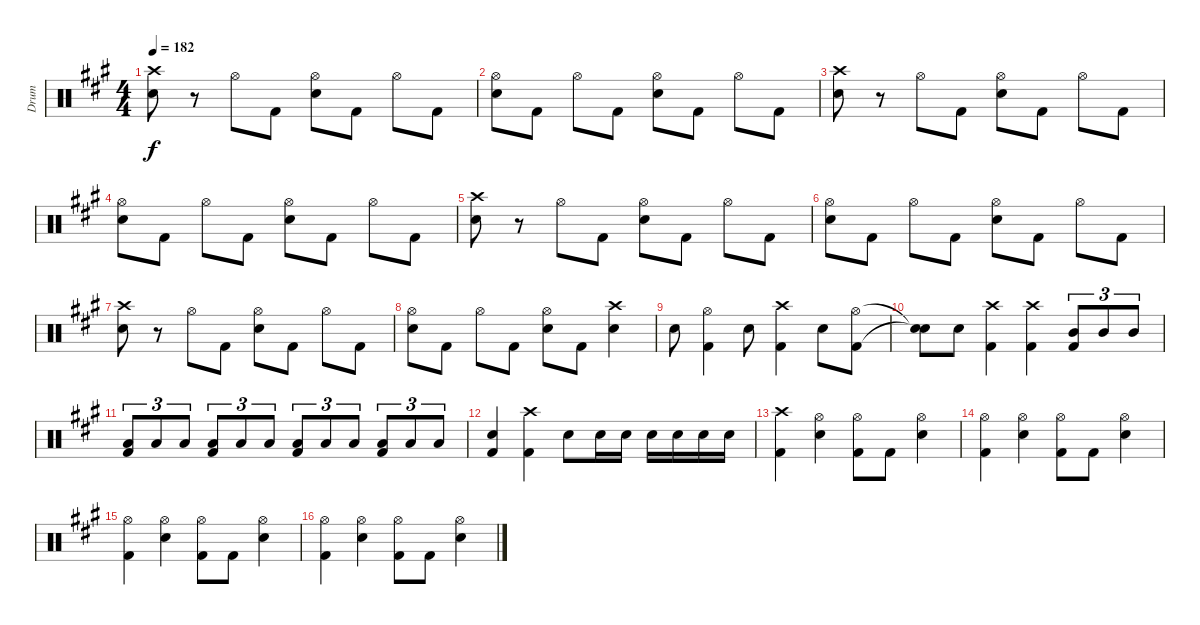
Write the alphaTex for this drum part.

\track ("Drum" "Drum") {instrument percussion}
\staff {score}
\articulation defaults
\ts (4 4)
\tempo 182
\clef neutral
\ks a
("Crash high (hit)" "Snare (hit) 2").8{dy f} r.8 "Hi-Hat (open)".8 "Kick (hit) 2".8 ("Hi-Hat (open)" "Snare (hit) 2").8 "Kick (hit) 2".8 "Hi-Hat (open)".8 "Kick (hit) 2".8 |
("Hi-Hat (open)" "Snare (hit) 2").8 "Kick (hit) 2".8 "Hi-Hat (open)".8 "Kick (hit) 2".8 ("Hi-Hat (open)" "Snare (hit) 2").8 "Kick (hit) 2".8 "Hi-Hat (open)".8 "Kick (hit) 2".8 |
("Crash high (hit)" "Snare (hit) 2").8 r.8 "Hi-Hat (open)".8 "Kick (hit) 2".8 ("Hi-Hat (open)" "Snare (hit) 2").8 "Kick (hit) 2".8 "Hi-Hat (open)".8 "Kick (hit) 2".8 |
("Hi-Hat (open)" "Snare (hit) 2").8 "Kick (hit) 2".8 "Hi-Hat (open)".8 "Kick (hit) 2".8 ("Hi-Hat (open)" "Snare (hit) 2").8 "Kick (hit) 2".8 "Hi-Hat (open)".8 "Kick (hit) 2".8 |
("Crash high (hit)" "Snare (hit) 2").8 r.8 "Hi-Hat (open)".8 "Kick (hit) 2".8 ("Hi-Hat (open)" "Snare (hit) 2").8 "Kick (hit) 2".8 "Hi-Hat (open)".8 "Kick (hit) 2".8 |
("Hi-Hat (open)" "Snare (hit) 2").8 "Kick (hit) 2".8 "Hi-Hat (open)".8 "Kick (hit) 2".8 ("Hi-Hat (open)" "Snare (hit) 2").8 "Kick (hit) 2".8 "Hi-Hat (open)".8 "Kick (hit) 2".8 |
("Crash high (hit)" "Snare (hit) 2").8 r.8 "Hi-Hat (open)".8 "Kick (hit) 2".8 ("Hi-Hat (open)" "Snare (hit) 2").8 "Kick (hit) 2".8 "Hi-Hat (open)".8 "Kick (hit) 2".8 |
("Hi-Hat (open)" "Snare (hit) 2").8 "Kick (hit) 2".8 "Hi-Hat (open)".8 "Kick (hit) 2".8 ("Hi-Hat (open)" "Snare (hit) 2").8 "Kick (hit) 2".8 ("Crash high (hit)" "Snare (hit) 2").4 |
"Snare (hit) 2".8 ("Hi-Hat (open)" "Kick (hit) 2").4 "Snare (hit) 2".8 ("Crash high (hit)" "Kick (hit) 2").4 "Snare (hit) 2".8 ("Hi-Hat (open)" "Kick (hit) 2").8 |
("Snare (hit)"{t} "Snare (hit)"{t}).8 "Snare (hit) 2".8 ("Crash high (hit)" "Kick (hit) 2").4 ("Crash high (hit)" "Kick (hit) 2").4 ("Mid Tom (hit)" "Kick (hit) 2").8{tu (3 2)} "Mid Tom (hit)".8{tu (3 2)} "Mid Tom (hit)".8{tu (3 2)} |
("Low Tom (hit)" "Kick (hit) 2").8{tu (3 2)} "Low Tom (hit)".8{tu (3 2)} "Low Tom (hit)".8{tu (3 2)} ("Low Tom (hit)" "Kick (hit) 2").8{tu (3 2)} "Low Tom (hit)".8{tu (3 2)} "Low Tom (hit)".8{tu (3 2)} ("Low Tom (hit)" "Kick (hit) 2").8{tu (3 2)} "Low Tom (hit)".8{tu (3 2)} "Low Tom (hit)".8{tu (3 2)} ("Low Tom (hit)" "Kick (hit) 2").8{tu (3 2)} "Low Tom (hit)".8{tu (3 2)} "Low Tom (hit)".8{tu (3 2)} |
("Snare (hit) 2" "Kick (hit) 2").4 ("Crash high (hit)" "Kick (hit) 2").4 "Snare (hit) 2".8 "Snare (hit) 2".16 "Snare (hit) 2".16 "Snare (hit) 2".16 "Snare (hit) 2".16 "Snare (hit) 2".16 "Snare (hit) 2".16 |
("Crash high (hit)" "Kick (hit) 2").4 ("Hi-Hat (open)" "Snare (hit) 2").4 ("Hi-Hat (open)" "Kick (hit) 2").8 "Kick (hit) 2".8 ("Hi-Hat (open)" "Snare (hit) 2").4 |
("Hi-Hat (open)" "Kick (hit) 2").4 ("Hi-Hat (open)" "Snare (hit) 2").4 ("Hi-Hat (open)" "Kick (hit) 2").8 "Kick (hit) 2".8 ("Hi-Hat (open)" "Snare (hit) 2").4 |
("Hi-Hat (open)" "Kick (hit) 2").4 ("Hi-Hat (open)" "Snare (hit) 2").4 ("Hi-Hat (open)" "Kick (hit) 2").8 "Kick (hit) 2".8 ("Hi-Hat (open)" "Snare (hit) 2").4 |
("Hi-Hat (open)" "Kick (hit) 2").4 ("Hi-Hat (open)" "Snare (hit) 2").4 ("Hi-Hat (open)" "Kick (hit) 2").8 "Kick (hit) 2".8 ("Hi-Hat (open)" "Snare (hit) 2").4
